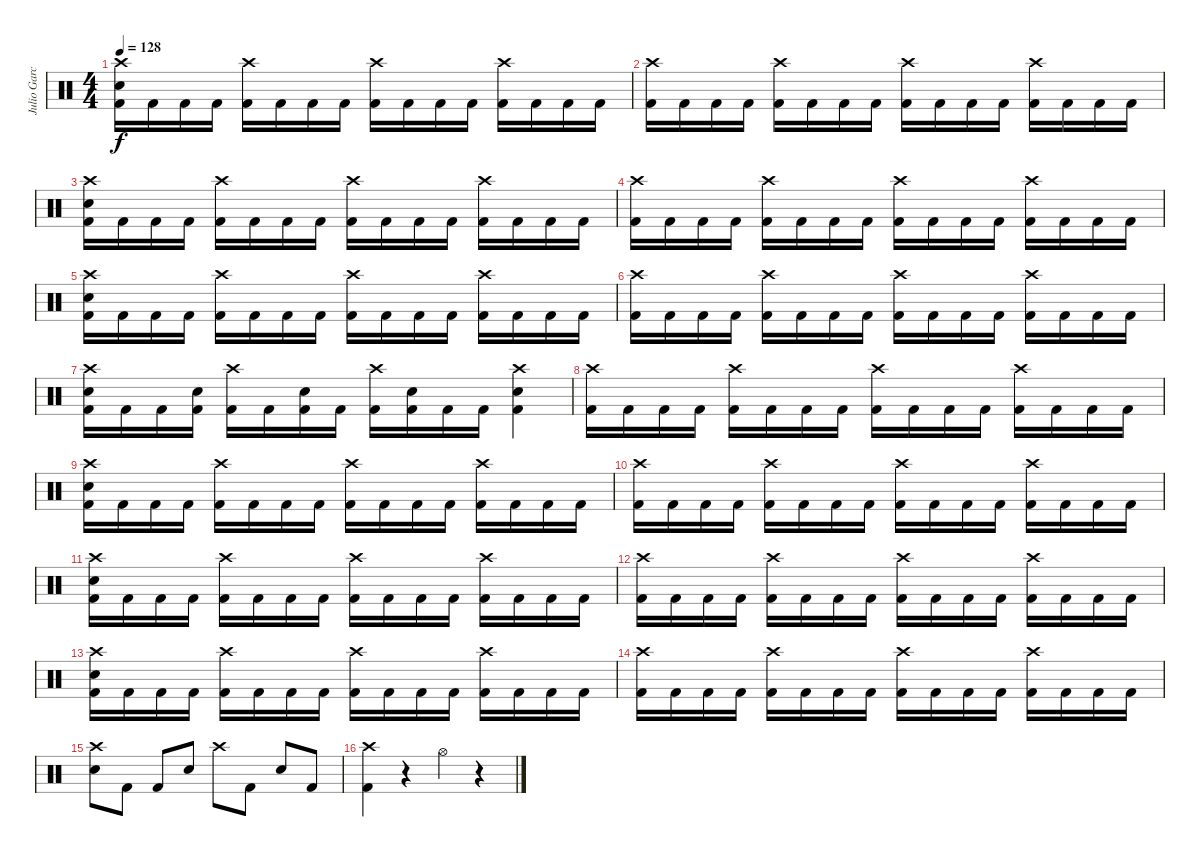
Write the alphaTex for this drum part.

\track ("Julio Garcia" "Julio Garc") {instrument percussion}
\staff {score}
\articulation defaults
\ts (4 4)
\tempo 128
\clef neutral
\ks c
("Crash high (hit)" "Electric Snare (hit)" "Kick (hit) 2").16{dy f} "Kick (hit) 2".16 "Kick (hit) 2".16 "Kick (hit) 2".16 ("Crash high (hit)" "Kick (hit) 2").16 "Kick (hit) 2".16 "Kick (hit) 2".16 "Kick (hit) 2".16 ("Crash high (hit)" "Kick (hit) 2").16 "Kick (hit) 2".16 "Kick (hit) 2".16 "Kick (hit) 2".16 ("Crash high (hit)" "Kick (hit) 2").16 "Kick (hit) 2".16 "Kick (hit) 2".16 "Kick (hit) 2".16 |
("Crash high (hit)" "Kick (hit) 2").16 "Kick (hit) 2".16 "Kick (hit) 2".16 "Kick (hit) 2".16 ("Crash high (hit)" "Kick (hit) 2").16 "Kick (hit) 2".16 "Kick (hit) 2".16 "Kick (hit) 2".16 ("Crash high (hit)" "Kick (hit) 2").16 "Kick (hit) 2".16 "Kick (hit) 2".16 "Kick (hit) 2".16 ("Crash high (hit)" "Kick (hit) 2").16 "Kick (hit) 2".16 "Kick (hit) 2".16 "Kick (hit) 2".16 |
("Crash high (hit)" "Electric Snare (hit)" "Kick (hit) 2").16 "Kick (hit) 2".16 "Kick (hit) 2".16 "Kick (hit) 2".16 ("Crash high (hit)" "Kick (hit) 2").16 "Kick (hit) 2".16 "Kick (hit) 2".16 "Kick (hit) 2".16 ("Crash high (hit)" "Kick (hit) 2").16 "Kick (hit) 2".16 "Kick (hit) 2".16 "Kick (hit) 2".16 ("Crash high (hit)" "Kick (hit) 2").16 "Kick (hit) 2".16 "Kick (hit) 2".16 "Kick (hit) 2".16 |
("Crash high (hit)" "Kick (hit) 2").16 "Kick (hit) 2".16 "Kick (hit) 2".16 "Kick (hit) 2".16 ("Crash high (hit)" "Kick (hit) 2").16 "Kick (hit) 2".16 "Kick (hit) 2".16 "Kick (hit) 2".16 ("Crash high (hit)" "Kick (hit) 2").16 "Kick (hit) 2".16 "Kick (hit) 2".16 "Kick (hit) 2".16 ("Crash high (hit)" "Kick (hit) 2").16 "Kick (hit) 2".16 "Kick (hit) 2".16 "Kick (hit) 2".16 |
("Crash high (hit)" "Electric Snare (hit)" "Kick (hit) 2").16 "Kick (hit) 2".16 "Kick (hit) 2".16 "Kick (hit) 2".16 ("Crash high (hit)" "Kick (hit) 2").16 "Kick (hit) 2".16 "Kick (hit) 2".16 "Kick (hit) 2".16 ("Crash high (hit)" "Kick (hit) 2").16 "Kick (hit) 2".16 "Kick (hit) 2".16 "Kick (hit) 2".16 ("Crash high (hit)" "Kick (hit) 2").16 "Kick (hit) 2".16 "Kick (hit) 2".16 "Kick (hit) 2".16 |
("Crash high (hit)" "Kick (hit) 2").16 "Kick (hit) 2".16 "Kick (hit) 2".16 "Kick (hit) 2".16 ("Crash high (hit)" "Kick (hit) 2").16 "Kick (hit) 2".16 "Kick (hit) 2".16 "Kick (hit) 2".16 ("Crash high (hit)" "Kick (hit) 2").16 "Kick (hit) 2".16 "Kick (hit) 2".16 "Kick (hit) 2".16 ("Crash high (hit)" "Kick (hit) 2").16 "Kick (hit) 2".16 "Kick (hit) 2".16 "Kick (hit) 2".16 |
("Crash high (hit)" "Electric Snare (hit)" "Kick (hit) 2").16 "Kick (hit) 2".16 "Kick (hit) 2".16 ("Electric Snare (hit)" "Kick (hit) 2").16 ("Crash high (hit)" "Kick (hit) 2").16 "Kick (hit) 2".16 ("Electric Snare (hit)" "Kick (hit) 2").16 "Kick (hit) 2".16 ("Crash high (hit)" "Kick (hit) 2").16 ("Electric Snare (hit)" "Kick (hit) 2").16 "Kick (hit) 2".16 "Kick (hit) 2".16 ("Crash high (hit)" "Electric Snare (hit)" "Kick (hit) 2").4 |
("Crash high (hit)" "Kick (hit) 2").16 "Kick (hit) 2".16 "Kick (hit) 2".16 "Kick (hit) 2".16 ("Crash high (hit)" "Kick (hit) 2").16 "Kick (hit) 2".16 "Kick (hit) 2".16 "Kick (hit) 2".16 ("Crash high (hit)" "Kick (hit) 2").16 "Kick (hit) 2".16 "Kick (hit) 2".16 "Kick (hit) 2".16 ("Crash high (hit)" "Kick (hit) 2").16 "Kick (hit) 2".16 "Kick (hit) 2".16 "Kick (hit) 2".16 |
("Crash high (hit)" "Electric Snare (hit)" "Kick (hit) 2").16 "Kick (hit) 2".16 "Kick (hit) 2".16 "Kick (hit) 2".16 ("Crash high (hit)" "Kick (hit) 2").16 "Kick (hit) 2".16 "Kick (hit) 2".16 "Kick (hit) 2".16 ("Crash high (hit)" "Kick (hit) 2").16 "Kick (hit) 2".16 "Kick (hit) 2".16 "Kick (hit) 2".16 ("Crash high (hit)" "Kick (hit) 2").16 "Kick (hit) 2".16 "Kick (hit) 2".16 "Kick (hit) 2".16 |
("Crash high (hit)" "Kick (hit) 2").16 "Kick (hit) 2".16 "Kick (hit) 2".16 "Kick (hit) 2".16 ("Crash high (hit)" "Kick (hit) 2").16 "Kick (hit) 2".16 "Kick (hit) 2".16 "Kick (hit) 2".16 ("Crash high (hit)" "Kick (hit) 2").16 "Kick (hit) 2".16 "Kick (hit) 2".16 "Kick (hit) 2".16 ("Crash high (hit)" "Kick (hit) 2").16 "Kick (hit) 2".16 "Kick (hit) 2".16 "Kick (hit) 2".16 |
("Crash high (hit)" "Electric Snare (hit)" "Kick (hit) 2").16 "Kick (hit) 2".16 "Kick (hit) 2".16 "Kick (hit) 2".16 ("Crash high (hit)" "Kick (hit) 2").16 "Kick (hit) 2".16 "Kick (hit) 2".16 "Kick (hit) 2".16 ("Crash high (hit)" "Kick (hit) 2").16 "Kick (hit) 2".16 "Kick (hit) 2".16 "Kick (hit) 2".16 ("Crash high (hit)" "Kick (hit) 2").16 "Kick (hit) 2".16 "Kick (hit) 2".16 "Kick (hit) 2".16 |
("Crash high (hit)" "Kick (hit) 2").16 "Kick (hit) 2".16 "Kick (hit) 2".16 "Kick (hit) 2".16 ("Crash high (hit)" "Kick (hit) 2").16 "Kick (hit) 2".16 "Kick (hit) 2".16 "Kick (hit) 2".16 ("Crash high (hit)" "Kick (hit) 2").16 "Kick (hit) 2".16 "Kick (hit) 2".16 "Kick (hit) 2".16 ("Crash high (hit)" "Kick (hit) 2").16 "Kick (hit) 2".16 "Kick (hit) 2".16 "Kick (hit) 2".16 |
("Crash high (hit)" "Electric Snare (hit)" "Kick (hit) 2").16 "Kick (hit) 2".16 "Kick (hit) 2".16 "Kick (hit) 2".16 ("Crash high (hit)" "Kick (hit) 2").16 "Kick (hit) 2".16 "Kick (hit) 2".16 "Kick (hit) 2".16 ("Crash high (hit)" "Kick (hit) 2").16 "Kick (hit) 2".16 "Kick (hit) 2".16 "Kick (hit) 2".16 ("Crash high (hit)" "Kick (hit) 2").16 "Kick (hit) 2".16 "Kick (hit) 2".16 "Kick (hit) 2".16 |
("Crash high (hit)" "Kick (hit) 2").16 "Kick (hit) 2".16 "Kick (hit) 2".16 "Kick (hit) 2".16 ("Crash high (hit)" "Kick (hit) 2").16 "Kick (hit) 2".16 "Kick (hit) 2".16 "Kick (hit) 2".16 ("Crash high (hit)" "Kick (hit) 2").16 "Kick (hit) 2".16 "Kick (hit) 2".16 "Kick (hit) 2".16 ("Crash high (hit)" "Kick (hit) 2").16 "Kick (hit) 2".16 "Kick (hit) 2".16 "Kick (hit) 2".16 |
("Crash high (hit)" "Electric Snare (hit)").8 "Kick (hit) 2".8 "Kick (hit) 2".8 "Electric Snare (hit)".8 "Crash high (hit)".8 "Kick (hit) 2".8 "Electric Snare (hit)".8 "Kick (hit) 2".8 |
("Crash high (hit)" "Kick (hit) 2").4 r.4 "Hi-Hat (open)".4 r.4
